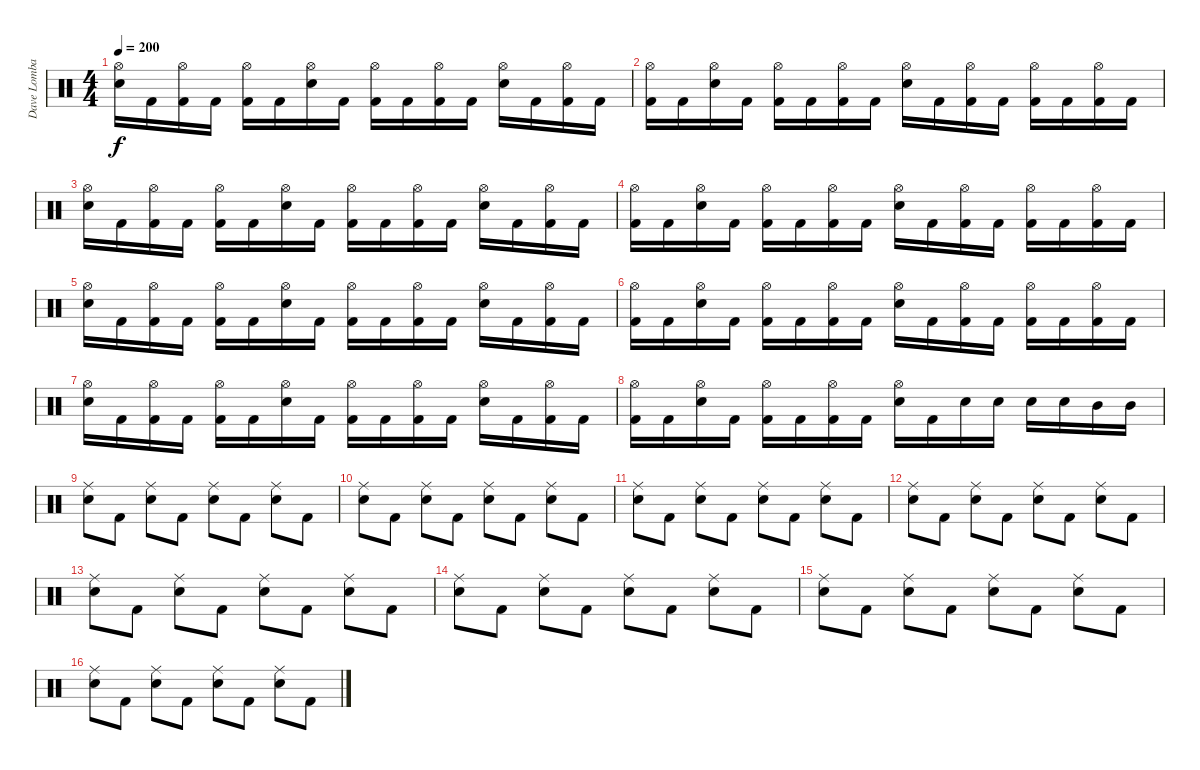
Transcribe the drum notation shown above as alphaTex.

\track ("Dave Lombardo:" "Dave Lomba") {instrument percussion}
\staff {score}
\articulation defaults
\ts (4 4)
\tempo 200
\clef neutral
\ks c
("Hi-Hat (open)" "Electric Snare (hit)").16{dy f} "Kick (hit) 2".16 ("Hi-Hat (open)" "Kick (hit) 2").16 "Kick (hit) 2".16 ("Hi-Hat (open)" "Kick (hit) 2").16 "Kick (hit) 2".16 ("Hi-Hat (open)" "Electric Snare (hit)").16 "Kick (hit) 2".16 ("Hi-Hat (open)" "Kick (hit) 2").16 "Kick (hit) 2".16 ("Hi-Hat (open)" "Kick (hit) 2").16 "Kick (hit) 2".16 ("Hi-Hat (open)" "Electric Snare (hit)").16 "Kick (hit) 2".16 ("Hi-Hat (open)" "Kick (hit) 2").16 "Kick (hit) 2".16 |
("Hi-Hat (open)" "Kick (hit) 2").16 "Kick (hit) 2".16 ("Hi-Hat (open)" "Electric Snare (hit)").16 "Kick (hit) 2".16 ("Hi-Hat (open)" "Kick (hit) 2").16 "Kick (hit) 2".16 ("Hi-Hat (open)" "Kick (hit) 2").16 "Kick (hit) 2".16 ("Hi-Hat (open)" "Electric Snare (hit)").16 "Kick (hit) 2".16 ("Hi-Hat (open)" "Kick (hit) 2").16 "Kick (hit) 2".16 ("Hi-Hat (open)" "Kick (hit) 2").16 "Kick (hit) 2".16 ("Hi-Hat (open)" "Kick (hit) 2").16 "Kick (hit) 2".16 |
("Hi-Hat (open)" "Electric Snare (hit)").16 "Kick (hit) 2".16 ("Hi-Hat (open)" "Kick (hit) 2").16 "Kick (hit) 2".16 ("Hi-Hat (open)" "Kick (hit) 2").16 "Kick (hit) 2".16 ("Hi-Hat (open)" "Electric Snare (hit)").16 "Kick (hit) 2".16 ("Hi-Hat (open)" "Kick (hit) 2").16 "Kick (hit) 2".16 ("Hi-Hat (open)" "Kick (hit) 2").16 "Kick (hit) 2".16 ("Hi-Hat (open)" "Electric Snare (hit)").16 "Kick (hit) 2".16 ("Hi-Hat (open)" "Kick (hit) 2").16 "Kick (hit) 2".16 |
("Hi-Hat (open)" "Kick (hit) 2").16 "Kick (hit) 2".16 ("Hi-Hat (open)" "Electric Snare (hit)").16 "Kick (hit) 2".16 ("Hi-Hat (open)" "Kick (hit) 2").16 "Kick (hit) 2".16 ("Hi-Hat (open)" "Kick (hit) 2").16 "Kick (hit) 2".16 ("Hi-Hat (open)" "Electric Snare (hit)").16 "Kick (hit) 2".16 ("Hi-Hat (open)" "Kick (hit) 2").16 "Kick (hit) 2".16 ("Hi-Hat (open)" "Kick (hit) 2").16 "Kick (hit) 2".16 ("Hi-Hat (open)" "Kick (hit) 2").16 "Kick (hit) 2".16 |
("Hi-Hat (open)" "Electric Snare (hit)").16 "Kick (hit) 2".16 ("Hi-Hat (open)" "Kick (hit) 2").16 "Kick (hit) 2".16 ("Hi-Hat (open)" "Kick (hit) 2").16 "Kick (hit) 2".16 ("Hi-Hat (open)" "Electric Snare (hit)").16 "Kick (hit) 2".16 ("Hi-Hat (open)" "Kick (hit) 2").16 "Kick (hit) 2".16 ("Hi-Hat (open)" "Kick (hit) 2").16 "Kick (hit) 2".16 ("Hi-Hat (open)" "Electric Snare (hit)").16 "Kick (hit) 2".16 ("Hi-Hat (open)" "Kick (hit) 2").16 "Kick (hit) 2".16 |
("Hi-Hat (open)" "Kick (hit) 2").16 "Kick (hit) 2".16 ("Hi-Hat (open)" "Electric Snare (hit)").16 "Kick (hit) 2".16 ("Hi-Hat (open)" "Kick (hit) 2").16 "Kick (hit) 2".16 ("Hi-Hat (open)" "Kick (hit) 2").16 "Kick (hit) 2".16 ("Hi-Hat (open)" "Electric Snare (hit)").16 "Kick (hit) 2".16 ("Hi-Hat (open)" "Kick (hit) 2").16 "Kick (hit) 2".16 ("Hi-Hat (open)" "Kick (hit) 2").16 "Kick (hit) 2".16 ("Hi-Hat (open)" "Kick (hit) 2").16 "Kick (hit) 2".16 |
("Hi-Hat (open)" "Electric Snare (hit)").16 "Kick (hit) 2".16 ("Hi-Hat (open)" "Kick (hit) 2").16 "Kick (hit) 2".16 ("Hi-Hat (open)" "Kick (hit) 2").16 "Kick (hit) 2".16 ("Hi-Hat (open)" "Electric Snare (hit)").16 "Kick (hit) 2".16 ("Hi-Hat (open)" "Kick (hit) 2").16 "Kick (hit) 2".16 ("Hi-Hat (open)" "Kick (hit) 2").16 "Kick (hit) 2".16 ("Hi-Hat (open)" "Electric Snare (hit)").16 "Kick (hit) 2".16 ("Hi-Hat (open)" "Kick (hit) 2").16 "Kick (hit) 2".16 |
("Hi-Hat (open)" "Kick (hit) 2").16 "Kick (hit) 2".16 ("Hi-Hat (open)" "Electric Snare (hit)").16 "Kick (hit) 2".16 ("Hi-Hat (open)" "Kick (hit) 2").16 "Kick (hit) 2".16 ("Hi-Hat (open)" "Kick (hit) 2").16 "Kick (hit) 2".16 ("Hi-Hat (open)" "Electric Snare (hit)").16 "Kick (hit) 2".16 "Electric Snare (hit)".16 "Electric Snare (hit)".16 "Electric Snare (hit)".16 "Electric Snare (hit)".16 "Mid Tom (hit)".16 "Mid Tom (hit)".16 |
("Ride (middle)" "Electric Snare (hit)").8 "Kick (hit) 2".8 ("Ride (middle)" "Electric Snare (hit)").8 "Kick (hit) 2".8 ("Ride (middle)" "Electric Snare (hit)").8 "Kick (hit) 2".8 ("Ride (middle)" "Electric Snare (hit)").8 "Kick (hit) 2".8 |
("Ride (middle)" "Electric Snare (hit)").8 "Kick (hit) 2".8 ("Ride (middle)" "Electric Snare (hit)").8 "Kick (hit) 2".8 ("Ride (middle)" "Electric Snare (hit)").8 "Kick (hit) 2".8 ("Ride (middle)" "Electric Snare (hit)").8 "Kick (hit) 2".8 |
("Ride (middle)" "Electric Snare (hit)").8 "Kick (hit) 2".8 ("Ride (middle)" "Electric Snare (hit)").8 "Kick (hit) 2".8 ("Ride (middle)" "Electric Snare (hit)").8 "Kick (hit) 2".8 ("Ride (middle)" "Electric Snare (hit)").8 "Kick (hit) 2".8 |
("Ride (middle)" "Electric Snare (hit)").8 "Kick (hit) 2".8 ("Ride (middle)" "Electric Snare (hit)").8 "Kick (hit) 2".8 ("Ride (middle)" "Electric Snare (hit)").8 "Kick (hit) 2".8 ("Ride (middle)" "Electric Snare (hit)").8 "Kick (hit) 2".8 |
("Ride (middle)" "Electric Snare (hit)").8 "Kick (hit) 2".8 ("Ride (middle)" "Electric Snare (hit)").8 "Kick (hit) 2".8 ("Ride (middle)" "Electric Snare (hit)").8 "Kick (hit) 2".8 ("Ride (middle)" "Electric Snare (hit)").8 "Kick (hit) 2".8 |
("Ride (middle)" "Electric Snare (hit)").8 "Kick (hit) 2".8 ("Ride (middle)" "Electric Snare (hit)").8 "Kick (hit) 2".8 ("Ride (middle)" "Electric Snare (hit)").8 "Kick (hit) 2".8 ("Ride (middle)" "Electric Snare (hit)").8 "Kick (hit) 2".8 |
("Ride (middle)" "Electric Snare (hit)").8 "Kick (hit) 2".8 ("Ride (middle)" "Electric Snare (hit)").8 "Kick (hit) 2".8 ("Ride (middle)" "Electric Snare (hit)").8 "Kick (hit) 2".8 ("Ride (middle)" "Electric Snare (hit)").8 "Kick (hit) 2".8 |
("Ride (middle)" "Electric Snare (hit)").8 "Kick (hit) 2".8 ("Ride (middle)" "Electric Snare (hit)").8 "Kick (hit) 2".8 ("Ride (middle)" "Electric Snare (hit)").8 "Kick (hit) 2".8 ("Ride (middle)" "Electric Snare (hit)").8 "Kick (hit) 2".8
